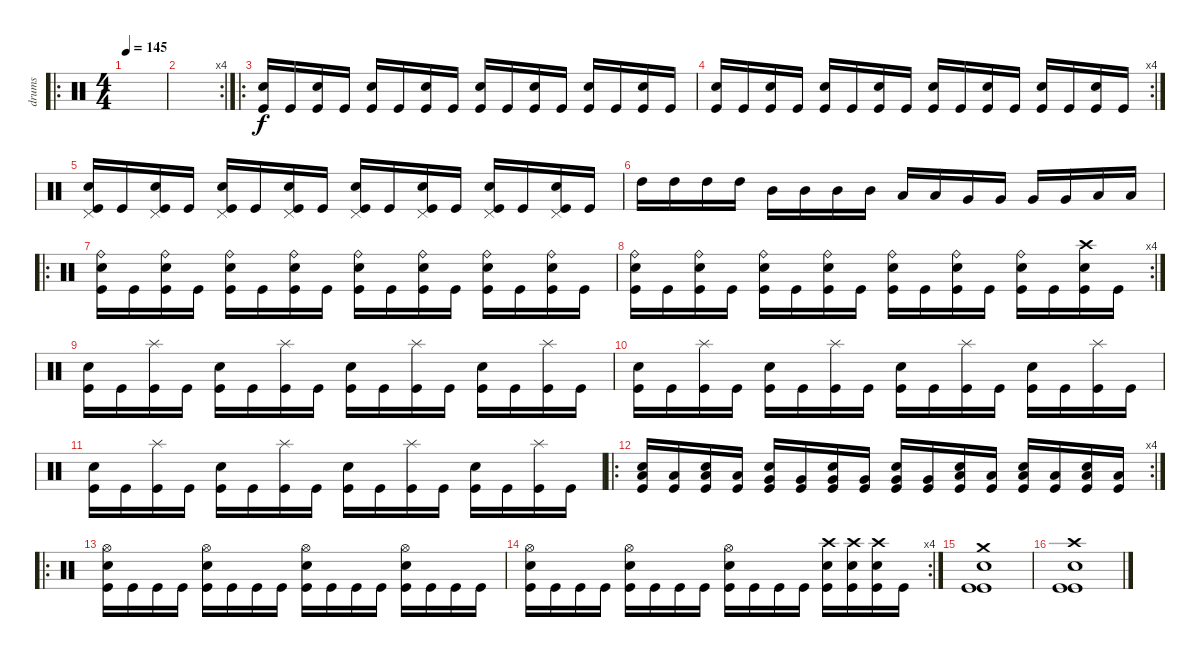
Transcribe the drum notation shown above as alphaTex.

\track ("drums" "drums") {instrument percussion}
\staff {score}
\articulation defaults
\ro
\ts (4 4)
\tempo 145
\clef neutral
\ks c
|
\rc 4
|
\ro
("Electric Snare (hit)" "Kick (hit)").16 "Kick (hit)".16 ("Electric Snare (hit)" "Kick (hit)").16 "Kick (hit)".16 ("Electric Snare (hit)" "Kick (hit)").16 "Kick (hit)".16 ("Electric Snare (hit)" "Kick (hit)").16 "Kick (hit)".16 ("Electric Snare (hit)" "Kick (hit)").16 "Kick (hit)".16 ("Electric Snare (hit)" "Kick (hit)").16 "Kick (hit)".16 ("Electric Snare (hit)" "Kick (hit)").16 "Kick (hit)".16 ("Electric Snare (hit)" "Kick (hit)").16 "Kick (hit)".16 |
\rc 4
("Electric Snare (hit)" "Kick (hit)").16 "Kick (hit)".16 ("Electric Snare (hit)" "Kick (hit)").16 "Kick (hit)".16 ("Electric Snare (hit)" "Kick (hit)").16 "Kick (hit)".16 ("Electric Snare (hit)" "Kick (hit)").16 "Kick (hit)".16 ("Electric Snare (hit)" "Kick (hit)").16 "Kick (hit)".16 ("Electric Snare (hit)" "Kick (hit)").16 "Kick (hit)".16 ("Electric Snare (hit)" "Kick (hit)").16 "Kick (hit)".16 ("Electric Snare (hit)" "Kick (hit)").16 "Kick (hit)".16 |
("Electric Snare (hit)" "Pedal Hi-Hat (hit)" "Kick (hit)").16 "Kick (hit)".16 ("Electric Snare (hit)" "Pedal Hi-Hat (hit)" "Kick (hit)").16 "Kick (hit)".16 ("Electric Snare (hit)" "Pedal Hi-Hat (hit)" "Kick (hit)").16 "Kick (hit)".16 ("Electric Snare (hit)" "Pedal Hi-Hat (hit)" "Kick (hit)").16 "Kick (hit)".16 ("Electric Snare (hit)" "Pedal Hi-Hat (hit)" "Kick (hit)").16 "Kick (hit)".16 ("Electric Snare (hit)" "Pedal Hi-Hat (hit)" "Kick (hit)").16 "Kick (hit)".16 ("Electric Snare (hit)" "Pedal Hi-Hat (hit)" "Kick (hit)").16 "Kick (hit)".16 ("Electric Snare (hit)" "Pedal Hi-Hat (hit)" "Kick (hit)").16 "Kick (hit)".16 |
"High Tom (hit)".16 "High Tom (hit)".16 "High Tom (hit)".16 "High Tom (hit)".16 "Mid Tom (hit)".16 "Mid Tom (hit)".16 "Mid Tom (hit)".16 "Mid Tom (hit)".16 "Low Tom (hit)".16 "Low Tom (hit)".16 "Very Low Tom (hit)".16 "Very Low Tom (hit)".16 "Very Low Tom (hit)".16 "Very Low Tom (hit)".16 "Low Floor Tom (hit)".16 "Low Floor Tom (hit)".16 |
\ro
("Electric Snare (hit)" "Ride (bell)" "Kick (hit)").16 "Kick (hit)".16 ("Electric Snare (hit)" "Ride (bell)" "Kick (hit)").16 "Kick (hit)".16 ("Electric Snare (hit)" "Ride (bell)" "Kick (hit)").16 "Kick (hit)".16 ("Electric Snare (hit)" "Ride (bell)" "Kick (hit)").16 "Kick (hit)".16 ("Electric Snare (hit)" "Ride (bell)" "Kick (hit)").16 "Kick (hit)".16 ("Electric Snare (hit)" "Ride (bell)" "Kick (hit)").16 "Kick (hit)".16 ("Electric Snare (hit)" "Ride (bell)" "Kick (hit)").16 "Kick (hit)".16 ("Electric Snare (hit)" "Ride (bell)" "Kick (hit)").16 "Kick (hit)".16 |
\rc 4
("Electric Snare (hit)" "Ride (bell)" "Kick (hit)").16 "Kick (hit)".16 ("Electric Snare (hit)" "Ride (bell)" "Kick (hit)").16 "Kick (hit)".16 ("Electric Snare (hit)" "Ride (bell)" "Kick (hit)").16 "Kick (hit)".16 ("Electric Snare (hit)" "Ride (bell)" "Kick (hit)").16 "Kick (hit)".16 ("Electric Snare (hit)" "Ride (bell)" "Kick (hit)").16 "Kick (hit)".16 ("Electric Snare (hit)" "Ride (bell)" "Kick (hit)").16 "Kick (hit)".16 ("Electric Snare (hit)" "Ride (bell)" "Kick (hit)").16 "Kick (hit)".16 ("Electric Snare (hit)" "Crash high (hit)" "Kick (hit)").16 "Kick (hit)".16 |
("Electric Snare (hit)" "Kick (hit)").16 "Kick (hit)".16 ("Splash (hit)" "Kick (hit)").16 "Kick (hit)".16 ("Electric Snare (hit)" "Kick (hit)").16 "Kick (hit)".16 ("Splash (hit)" "Kick (hit)").16 "Kick (hit)".16 ("Electric Snare (hit)" "Kick (hit)").16 "Kick (hit)".16 ("Splash (hit)" "Kick (hit)").16 "Kick (hit)".16 ("Electric Snare (hit)" "Kick (hit)").16 "Kick (hit)".16 ("Splash (hit)" "Kick (hit)").16 "Kick (hit)".16 |
("Electric Snare (hit)" "Kick (hit)").16 "Kick (hit)".16 ("Splash (hit)" "Kick (hit)").16 "Kick (hit)".16 ("Electric Snare (hit)" "Kick (hit)").16 "Kick (hit)".16 ("Splash (hit)" "Kick (hit)").16 "Kick (hit)".16 ("Electric Snare (hit)" "Kick (hit)").16 "Kick (hit)".16 ("Splash (hit)" "Kick (hit)").16 "Kick (hit)".16 ("Electric Snare (hit)" "Kick (hit)").16 "Kick (hit)".16 ("Splash (hit)" "Kick (hit)").16 "Kick (hit)".16 |
("Electric Snare (hit)" "Kick (hit)").16 "Kick (hit)".16 ("Splash (hit)" "Kick (hit)").16 "Kick (hit)".16 ("Electric Snare (hit)" "Kick (hit)").16 "Kick (hit)".16 ("Splash (hit)" "Kick (hit)").16 "Kick (hit)".16 ("Electric Snare (hit)" "Kick (hit)").16 "Kick (hit)".16 ("Splash (hit)" "Kick (hit)").16 "Kick (hit)".16 ("Electric Snare (hit)" "Kick (hit)").16 "Kick (hit)".16 ("Splash (hit)" "Kick (hit)").16 "Kick (hit)".16 |
\ro
\rc 4
("Electric Snare (hit)" "Low Tom (hit)" "Kick (hit)").16 ("Low Tom (hit)" "Kick (hit)").16 ("Electric Snare (hit)" "Low Tom (hit)" "Kick (hit)").16 ("Low Tom (hit)" "Kick (hit)").16 ("Electric Snare (hit)" "Very Low Tom (hit)" "Kick (hit)").16 ("Very Low Tom (hit)" "Kick (hit)").16 ("Electric Snare (hit)" "Very Low Tom (hit)" "Kick (hit)").16 ("Very Low Tom (hit)" "Kick (hit)").16 ("Electric Snare (hit)" "Very Low Tom (hit)" "Kick (hit)").16 ("Very Low Tom (hit)" "Kick (hit)").16 ("Electric Snare (hit)" "Low Floor Tom (hit)" "Kick (hit)").16 ("Low Floor Tom (hit)" "Kick (hit)").16 ("Electric Snare (hit)" "Low Floor Tom (hit)" "Kick (hit)").16 ("Low Floor Tom (hit)" "Kick (hit)").16 ("Electric Snare (hit)" "Low Floor Tom (hit)" "Kick (hit)").16 ("Low Floor Tom (hit)" "Kick (hit)").16 |
\ro
("Electric Snare (hit)" "Hi-Hat (open)" "Kick (hit)").16 "Kick (hit)".16 "Kick (hit)".16 "Kick (hit)".16 ("Electric Snare (hit)" "Hi-Hat (open)" "Kick (hit)").16 "Kick (hit)".16 "Kick (hit)".16 "Kick (hit)".16 ("Electric Snare (hit)" "Hi-Hat (open)" "Kick (hit)").16 "Kick (hit)".16 "Kick (hit)".16 "Kick (hit)".16 ("Electric Snare (hit)" "Hi-Hat (open)" "Kick (hit)").16 "Kick (hit)".16 "Kick (hit)".16 "Kick (hit)".16 |
\rc 4
("Electric Snare (hit)" "Hi-Hat (open)" "Kick (hit)").16 "Kick (hit)".16 "Kick (hit)".16 "Kick (hit)".16 ("Electric Snare (hit)" "Hi-Hat (open)" "Kick (hit)").16 "Kick (hit)".16 "Kick (hit)".16 "Kick (hit)".16 ("Electric Snare (hit)" "Hi-Hat (open)" "Kick (hit)").16 "Kick (hit)".16 "Kick (hit)".16 "Kick (hit)".16 ("Electric Snare (hit)" "Crash high (hit)" "Kick (hit)").16 ("Electric Snare (hit)" "Crash high (hit)" "Kick (hit)").16 ("Electric Snare (hit)" "Crash high (hit)" "Kick (hit)").16 "Kick (hit)".16 |
("Crash medium (hit)" "Electric Snare (hit)" "Kick (hit)" "Kick (hit)").1 |
("Crash high (hit)" "Electric Snare (hit)" "Kick (hit)" "Kick (hit)").1
